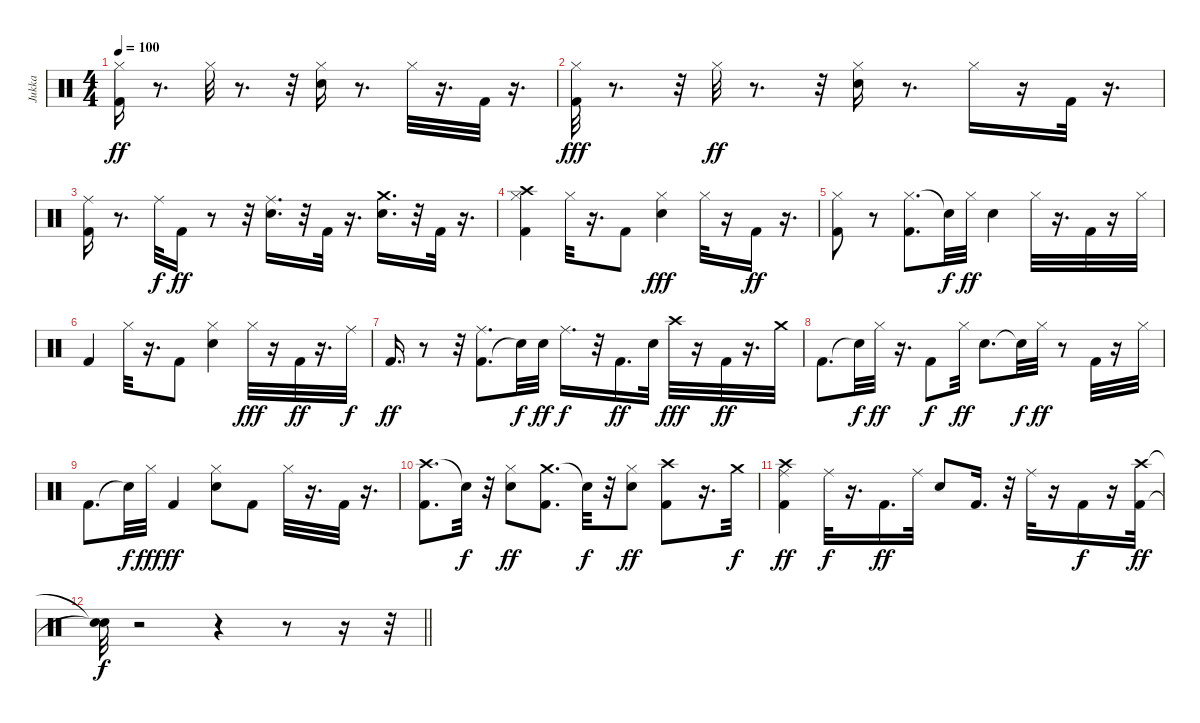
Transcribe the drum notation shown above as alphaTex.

\track ("Jukka" "Jukka") {instrument percussion}
\staff {score}
\articulation defaults
\ts (4 4)
\tempo 100
\clef neutral
\ks c
("Hi-Hat (closed)" "Kick (hit) 2").16{dy ff} r.8{d} "Hi-Hat (closed)".32 r.8{d} r.32 ("Hi-Hat (closed)" "Electric Snare (hit)").16 r.8{d} "Hi-Hat (closed)".32 r.16{d} "Kick (hit) 2".32 r.16{d} |
("Hi-Hat (closed)" "Kick (hit) 2").32{dy fff} r.8{d} r.32 "Hi-Hat (closed)".32{dy ff} r.8{d} r.32 ("Hi-Hat (closed)" "Electric Snare (hit)").16 r.8{d} "Hi-Hat (closed)".16 r.16 "Kick (hit) 2".32 r.16{d} |
("Ride (middle)" "Kick (hit) 2").16 r.8{d} "Ride (middle)".32{dy f} "Kick (hit) 2".16{dy ff} r.8 r.32 ("Electric Snare (hit)" "Ride (middle)").16{d} r.32 "Kick (hit) 2".32 r.16{d} ("Crash medium (hit)" "Electric Snare (hit)").16{d} r.32 "Kick (hit) 2".32 r.16{d} |
("Crash high (hit)" "Hi-Hat (closed)" "Kick (hit) 2").4 "Hi-Hat (closed)".32 r.16{d} "Kick (hit) 2".8 ("Electric Snare (hit)" "Hi-Hat (closed)").4{dy fff} "Hi-Hat (closed)".32 r.16 "Kick (hit) 2".16{dy ff} r.16{d} |
("Hi-Hat (closed)" "Kick (hit) 2").8 r.8 ("Hi-Hat (closed)" "Kick (hit) 2").8{d} "Snare (hit)"{t}.32{dy f} "Hi-Hat (closed)".32{dy ff} "Electric Snare (hit)".4 "Hi-Hat (closed)".32 r.16{d} "Kick (hit) 2".32 r.16 "Hi-Hat (closed)".32 |
"Kick (hit) 2".4 "Hi-Hat (closed)".32 r.16{d} "Kick (hit) 2".8 ("Hi-Hat (closed)" "Electric Snare (hit)").4 "Hi-Hat (closed)".32{dy fff} r.16 "Kick (hit) 2".32{dy ff} r.16{d} "Ride (middle)".32{dy f} |
"Kick (hit) 2".16{d dy ff} r.8 r.32 ("Kick (hit) 2" "Ride (middle)").8{d} "Snare (hit)"{t}.32{dy f} "Electric Snare (hit)".32{dy ff} "Ride (middle)".16{d dy f} r.32 "Kick (hit) 2".16{d dy ff} "Electric Snare (hit)".32 "Crash high (hit)".32{dy fff} r.16 "Kick (hit) 2".32{dy ff} r.16{d} "Crash medium (hit)".32 |
"Kick (hit) 2".8{d} "Snare (hit)"{t}.32{dy f} "Hi-Hat (closed)".32{dy ff} r.16{d} "Kick (hit) 2".8{dy f} "Hi-Hat (closed)".32{dy ff} "Electric Snare (hit)".8{d} "Snare (hit)"{t}.32{dy f} "Hi-Hat (closed)".32{dy ff} r.8 "Kick (hit) 2".32 r.16 "Hi-Hat (closed)".32 |
"Kick (hit) 2".8{d} "Snare (hit)"{t}.32{dy f} "Hi-Hat (closed)".32{dy fff} "Kick (hit) 2".4{dy ff} ("Hi-Hat (closed)" "Electric Snare (hit)").8 "Kick (hit) 2".8 "Hi-Hat (closed)".32 r.16{d} "Kick (hit) 2".32 r.16{d} |
("Crash high (hit)" "Kick (hit) 2").8{d} "Snare (hit)"{t}.32{dy f} r.32 ("Hi-Hat (closed)" "Electric Snare (hit)").8{dy ff} ("Crash medium (hit)" "Kick (hit) 2").8{d} "Snare (hit)"{t}.32{dy f} r.32 ("Hi-Hat (closed)" "Electric Snare (hit)").8{dy ff} ("Crash high (hit)" "Kick (hit) 2").8 r.16{d} "Crash medium (hit)".32{dy f} |
("Crash high (hit)" "Ride (middle)" "Kick (hit) 2").4{dy ff} "Ride (middle)".32{dy f} r.16{d} "Kick (hit) 2".16{d dy ff} "Ride (middle)".32 "Electric Snare (hit)".8 "Kick (hit) 2".16{d} r.32 "Ride (middle)".32 r.16 "Kick (hit) 2".16{dy f} r.16 ("Crash high (hit)" "Kick (hit) 2").32{dy ff} |
\barLineRight lightlight
("Snare (hit)"{t} "Snare (hit)"{t}).32{dy f} r.2 r.4 r.8 r.16 r.32
